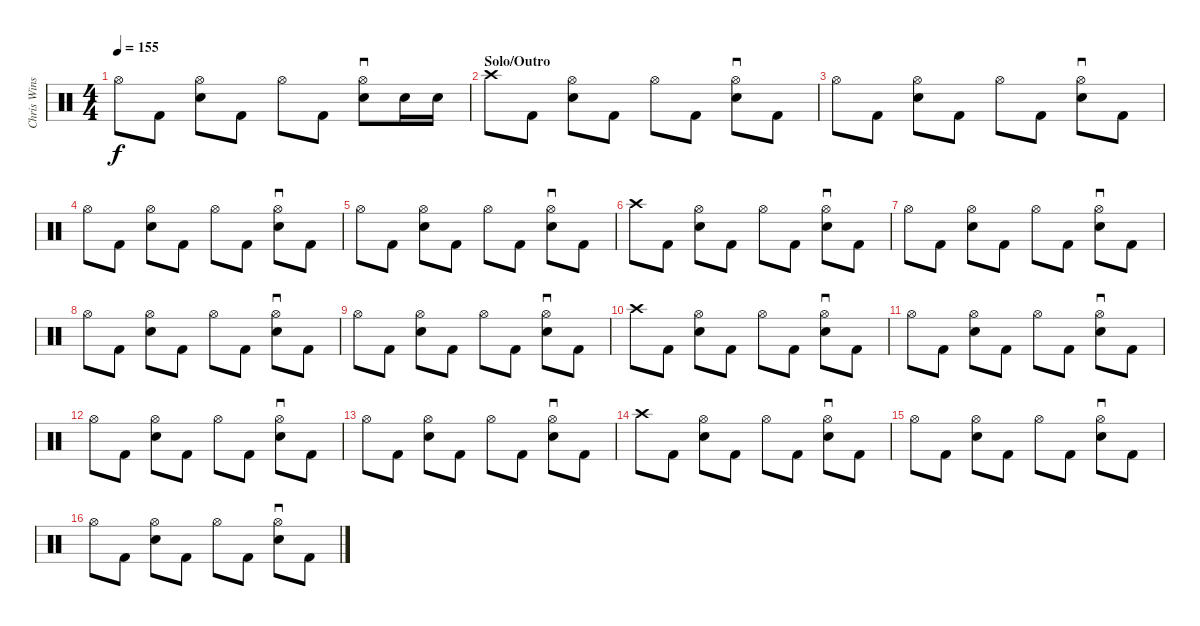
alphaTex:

\track ("Chris Winship (Drums)" "Chris Wins") {instrument percussion}
\staff {score}
\articulation defaults
\ts (4 4)
\tempo 155
\clef neutral
\ks c "Hi-Hat (open)".8{dy f} "Kick (hit) 2".8
("Hi-Hat (open)" "Snare (hit) 2").8 "Kick (hit) 2".8 "Hi-Hat (open)".8 "Kick (hit) 2".8 ("Hi-Hat (open)" "Snare (hit) 2").8{sd} "Snare (hit) 2".16 "Snare (hit) 2".16 |
\section ("" "Solo/Outro")
"Crash high (hit)".8 "Kick (hit) 2".8 ("Hi-Hat (open)" "Snare (hit) 2").8 "Kick (hit) 2".8 "Hi-Hat (open)".8 "Kick (hit) 2".8 ("Hi-Hat (open)" "Snare (hit) 2").8{sd} "Kick (hit) 2".8 |
"Hi-Hat (open)".8 "Kick (hit) 2".8 ("Hi-Hat (open)" "Snare (hit) 2").8 "Kick (hit) 2".8 "Hi-Hat (open)".8 "Kick (hit) 2".8 ("Hi-Hat (open)" "Snare (hit) 2").8{sd} "Kick (hit) 2".8 |
"Hi-Hat (open)".8 "Kick (hit) 2".8 ("Hi-Hat (open)" "Snare (hit) 2").8 "Kick (hit) 2".8 "Hi-Hat (open)".8 "Kick (hit) 2".8 ("Hi-Hat (open)" "Snare (hit) 2").8{sd} "Kick (hit) 2".8 |
"Hi-Hat (open)".8 "Kick (hit) 2".8 ("Hi-Hat (open)" "Snare (hit) 2").8 "Kick (hit) 2".8 "Hi-Hat (open)".8 "Kick (hit) 2".8 ("Hi-Hat (open)" "Snare (hit) 2").8{sd} "Kick (hit) 2".8 |
"Crash high (hit)".8 "Kick (hit) 2".8 ("Hi-Hat (open)" "Snare (hit) 2").8 "Kick (hit) 2".8 "Hi-Hat (open)".8 "Kick (hit) 2".8 ("Hi-Hat (open)" "Snare (hit) 2").8{sd} "Kick (hit) 2".8 |
"Hi-Hat (open)".8 "Kick (hit) 2".8 ("Hi-Hat (open)" "Snare (hit) 2").8 "Kick (hit) 2".8 "Hi-Hat (open)".8 "Kick (hit) 2".8 ("Hi-Hat (open)" "Snare (hit) 2").8{sd} "Kick (hit) 2".8 |
"Hi-Hat (open)".8 "Kick (hit) 2".8 ("Hi-Hat (open)" "Snare (hit) 2").8 "Kick (hit) 2".8 "Hi-Hat (open)".8 "Kick (hit) 2".8 ("Hi-Hat (open)" "Snare (hit) 2").8{sd} "Kick (hit) 2".8 |
"Hi-Hat (open)".8 "Kick (hit) 2".8 ("Hi-Hat (open)" "Snare (hit) 2").8 "Kick (hit) 2".8 "Hi-Hat (open)".8 "Kick (hit) 2".8 ("Hi-Hat (open)" "Snare (hit) 2").8{sd} "Kick (hit) 2".8 |
"Crash high (hit)".8 "Kick (hit) 2".8 ("Hi-Hat (open)" "Snare (hit) 2").8 "Kick (hit) 2".8 "Hi-Hat (open)".8 "Kick (hit) 2".8 ("Hi-Hat (open)" "Snare (hit) 2").8{sd} "Kick (hit) 2".8 |
"Hi-Hat (open)".8 "Kick (hit) 2".8 ("Hi-Hat (open)" "Snare (hit) 2").8 "Kick (hit) 2".8 "Hi-Hat (open)".8 "Kick (hit) 2".8 ("Hi-Hat (open)" "Snare (hit) 2").8{sd} "Kick (hit) 2".8 |
"Hi-Hat (open)".8 "Kick (hit) 2".8 ("Hi-Hat (open)" "Snare (hit) 2").8 "Kick (hit) 2".8 "Hi-Hat (open)".8 "Kick (hit) 2".8 ("Hi-Hat (open)" "Snare (hit) 2").8{sd} "Kick (hit) 2".8 |
"Hi-Hat (open)".8 "Kick (hit) 2".8 ("Hi-Hat (open)" "Snare (hit) 2").8 "Kick (hit) 2".8 "Hi-Hat (open)".8 "Kick (hit) 2".8 ("Hi-Hat (open)" "Snare (hit) 2").8{sd} "Kick (hit) 2".8 |
"Crash high (hit)".8 "Kick (hit) 2".8 ("Hi-Hat (open)" "Snare (hit) 2").8 "Kick (hit) 2".8 "Hi-Hat (open)".8 "Kick (hit) 2".8 ("Hi-Hat (open)" "Snare (hit) 2").8{sd} "Kick (hit) 2".8 |
"Hi-Hat (open)".8 "Kick (hit) 2".8 ("Hi-Hat (open)" "Snare (hit) 2").8 "Kick (hit) 2".8 "Hi-Hat (open)".8 "Kick (hit) 2".8 ("Hi-Hat (open)" "Snare (hit) 2").8{sd} "Kick (hit) 2".8 |
"Hi-Hat (open)".8 "Kick (hit) 2".8 ("Hi-Hat (open)" "Snare (hit) 2").8 "Kick (hit) 2".8 "Hi-Hat (open)".8 "Kick (hit) 2".8 ("Hi-Hat (open)" "Snare (hit) 2").8{sd} "Kick (hit) 2".8
